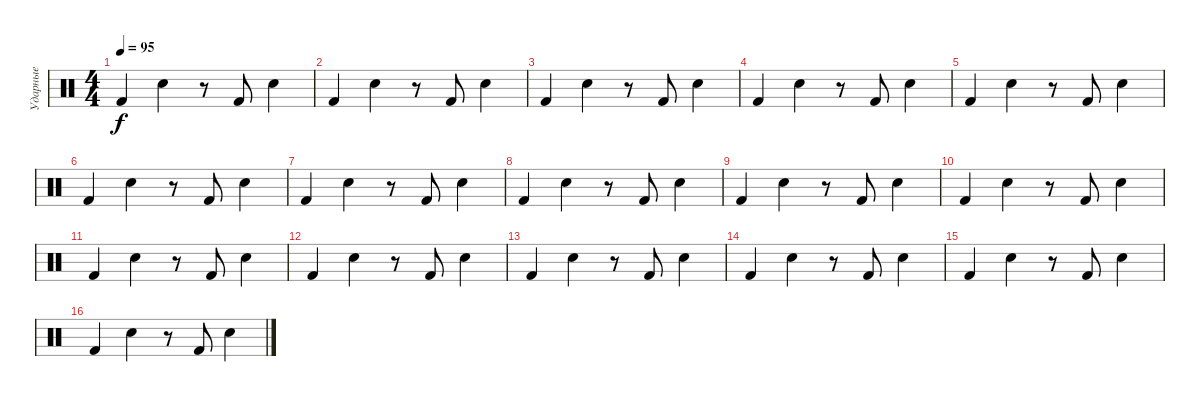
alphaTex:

\track ("Ударные" "Ударные") {instrument percussion}
\staff {score}
\articulation defaults
\ts (4 4)
\tempo 95
\clef neutral
\ks c "Kick (hit) 2".4{dy f} "Snare (hit) 2".4
r.8 "Kick (hit) 2".8 "Snare (hit) 2".4 |
"Kick (hit) 2".4 "Snare (hit) 2".4 r.8 "Kick (hit) 2".8 "Snare (hit) 2".4 |
"Kick (hit) 2".4 "Snare (hit) 2".4 r.8 "Kick (hit) 2".8 "Snare (hit) 2".4 |
"Kick (hit) 2".4 "Snare (hit) 2".4 r.8 "Kick (hit) 2".8 "Snare (hit) 2".4 |
"Kick (hit) 2".4 "Snare (hit) 2".4 r.8 "Kick (hit) 2".8 "Snare (hit) 2".4 |
"Kick (hit) 2".4 "Snare (hit) 2".4 r.8 "Kick (hit) 2".8 "Snare (hit) 2".4 |
"Kick (hit) 2".4 "Snare (hit) 2".4 r.8 "Kick (hit) 2".8 "Snare (hit) 2".4 |
"Kick (hit) 2".4 "Snare (hit) 2".4 r.8 "Kick (hit) 2".8 "Snare (hit) 2".4 |
"Kick (hit) 2".4 "Snare (hit) 2".4 r.8 "Kick (hit) 2".8 "Snare (hit) 2".4 |
"Kick (hit) 2".4 "Snare (hit) 2".4 r.8 "Kick (hit) 2".8 "Snare (hit) 2".4 |
"Kick (hit) 2".4 "Snare (hit) 2".4 r.8 "Kick (hit) 2".8 "Snare (hit) 2".4 |
"Kick (hit) 2".4 "Snare (hit) 2".4 r.8 "Kick (hit) 2".8 "Snare (hit) 2".4 |
"Kick (hit) 2".4 "Snare (hit) 2".4 r.8 "Kick (hit) 2".8 "Snare (hit) 2".4 |
"Kick (hit) 2".4 "Snare (hit) 2".4 r.8 "Kick (hit) 2".8 "Snare (hit) 2".4 |
"Kick (hit) 2".4 "Snare (hit) 2".4 r.8 "Kick (hit) 2".8 "Snare (hit) 2".4 |
"Kick (hit) 2".4 "Snare (hit) 2".4 r.8 "Kick (hit) 2".8 "Snare (hit) 2".4
